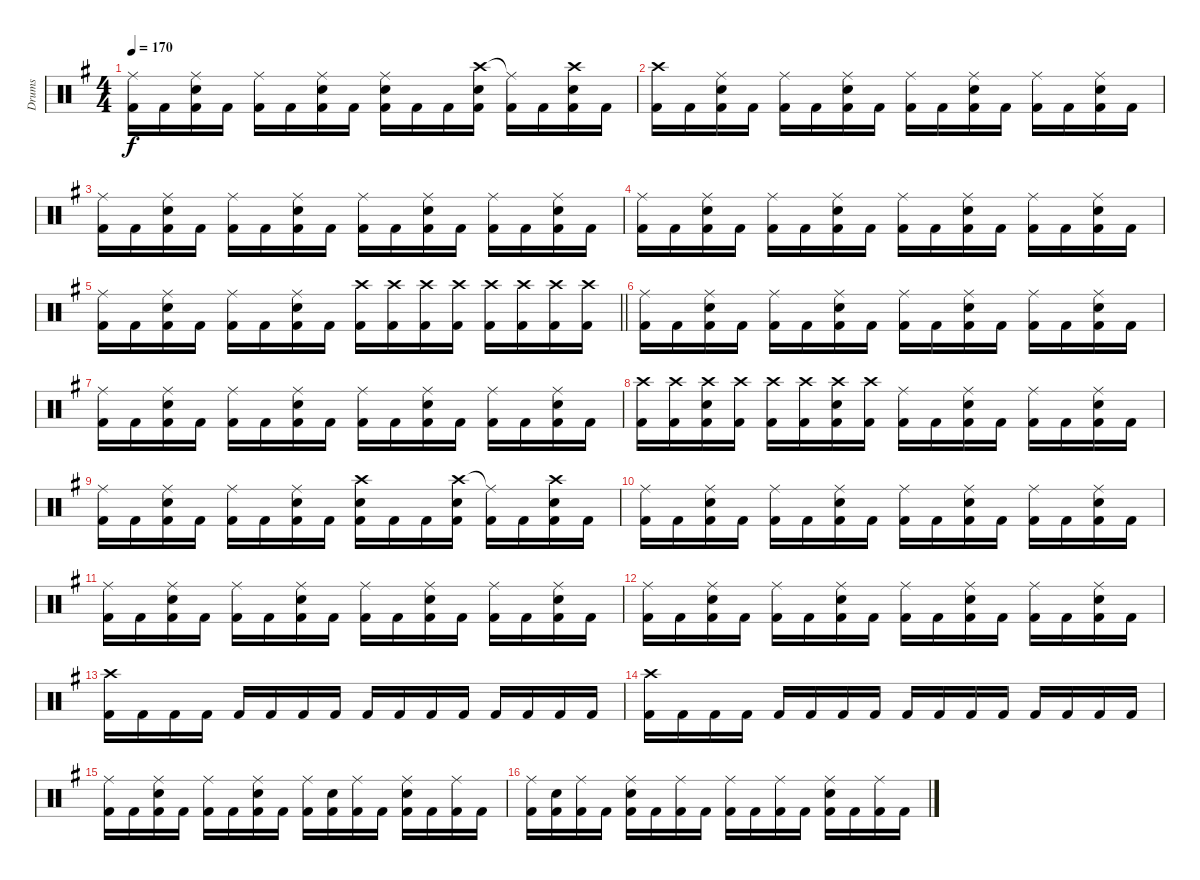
\track ("Drums" "Drums") {instrument percussion}
\staff {score}
\articulation defaults
\ts (4 4)
\tempo 170
\clef neutral
\ks g
("Ride (middle)" "Kick (hit) 2").16{dy f} "Kick (hit) 2".16 ("Ride (middle)" "Snare (hit) 2" "Kick (hit) 2").16 "Kick (hit) 2".16 ("Ride (middle)" "Kick (hit) 2").16 "Kick (hit) 2".16 ("Ride (middle)" "Snare (hit) 2" "Kick (hit) 2").16 "Kick (hit) 2".16 ("Ride (middle)" "Snare (hit) 2" "Kick (hit) 2").16 "Kick (hit) 2".16 "Kick (hit) 2".16 ("Crash high (hit)" "Snare (hit) 2" "Kick (hit) 2").16 ("Ride (middle)"{t} "Kick (hit) 2").16 "Kick (hit) 2".16 ("Crash high (hit)" "Snare (hit) 2" "Kick (hit) 2").16 "Kick (hit) 2".16 |
("Crash high (hit)" "Kick (hit) 2").16 "Kick (hit) 2".16 ("Ride (middle)" "Snare (hit) 2" "Kick (hit) 2").16 "Kick (hit) 2".16 ("Ride (middle)" "Kick (hit) 2").16 "Kick (hit) 2".16 ("Ride (middle)" "Snare (hit) 2" "Kick (hit) 2").16 "Kick (hit) 2".16 ("Ride (middle)" "Kick (hit) 2").16 "Kick (hit) 2".16 ("Ride (middle)" "Snare (hit) 2" "Kick (hit) 2").16 "Kick (hit) 2".16 ("Ride (middle)" "Kick (hit) 2").16 "Kick (hit) 2".16 ("Ride (middle)" "Snare (hit) 2" "Kick (hit) 2").16 "Kick (hit) 2".16 |
("Ride (middle)" "Kick (hit) 2").16 "Kick (hit) 2".16 ("Ride (middle)" "Snare (hit) 2" "Kick (hit) 2").16 "Kick (hit) 2".16 ("Ride (middle)" "Kick (hit) 2").16 "Kick (hit) 2".16 ("Ride (middle)" "Snare (hit) 2" "Kick (hit) 2").16 "Kick (hit) 2".16 ("Ride (middle)" "Kick (hit) 2").16 "Kick (hit) 2".16 ("Ride (middle)" "Snare (hit) 2" "Kick (hit) 2").16 "Kick (hit) 2".16 ("Ride (middle)" "Kick (hit) 2").16 "Kick (hit) 2".16 ("Ride (middle)" "Snare (hit) 2" "Kick (hit) 2").16 "Kick (hit) 2".16 |
("Ride (middle)" "Kick (hit) 2").16 "Kick (hit) 2".16 ("Ride (middle)" "Snare (hit) 2" "Kick (hit) 2").16 "Kick (hit) 2".16 ("Ride (middle)" "Kick (hit) 2").16 "Kick (hit) 2".16 ("Ride (middle)" "Snare (hit) 2" "Kick (hit) 2").16 "Kick (hit) 2".16 ("Ride (middle)" "Kick (hit) 2").16 "Kick (hit) 2".16 ("Ride (middle)" "Snare (hit) 2" "Kick (hit) 2").16 "Kick (hit) 2".16 ("Ride (middle)" "Kick (hit) 2").16 "Kick (hit) 2".16 ("Ride (middle)" "Snare (hit) 2" "Kick (hit) 2").16 "Kick (hit) 2".16 |
\barLineRight lightlight
("Ride (middle)" "Kick (hit) 2").16 "Kick (hit) 2".16 ("Ride (middle)" "Snare (hit) 2" "Kick (hit) 2").16 "Kick (hit) 2".16 ("Ride (middle)" "Kick (hit) 2").16 "Kick (hit) 2".16 ("Ride (middle)" "Snare (hit) 2" "Kick (hit) 2").16 "Kick (hit) 2".16 ("Crash high (hit)" "Kick (hit) 2").16 ("Crash high (hit)" "Kick (hit) 2").16 ("Crash high (hit)" "Kick (hit) 2").16 ("Crash high (hit)" "Kick (hit) 2").16 ("Crash high (hit)" "Kick (hit) 2").16 ("Crash high (hit)" "Kick (hit) 2").16 ("Crash high (hit)" "Kick (hit) 2").16 ("Crash high (hit)" "Kick (hit) 2").16 |
("Ride (middle)" "Kick (hit) 2").16 "Kick (hit) 2".16 ("Ride (middle)" "Snare (hit) 2" "Kick (hit) 2").16 "Kick (hit) 2".16 ("Ride (middle)" "Kick (hit) 2").16 "Kick (hit) 2".16 ("Ride (middle)" "Snare (hit) 2" "Kick (hit) 2").16 "Kick (hit) 2".16 ("Ride (middle)" "Kick (hit) 2").16 "Kick (hit) 2".16 ("Ride (middle)" "Snare (hit) 2" "Kick (hit) 2").16 "Kick (hit) 2".16 ("Ride (middle)" "Kick (hit) 2").16 "Kick (hit) 2".16 ("Ride (middle)" "Snare (hit) 2" "Kick (hit) 2").16 "Kick (hit) 2".16 |
("Ride (middle)" "Kick (hit) 2").16 "Kick (hit) 2".16 ("Ride (middle)" "Snare (hit) 2" "Kick (hit) 2").16 "Kick (hit) 2".16 ("Ride (middle)" "Kick (hit) 2").16 "Kick (hit) 2".16 ("Ride (middle)" "Snare (hit) 2" "Kick (hit) 2").16 "Kick (hit) 2".16 ("Ride (middle)" "Kick (hit) 2").16 "Kick (hit) 2".16 ("Ride (middle)" "Snare (hit) 2" "Kick (hit) 2").16 "Kick (hit) 2".16 ("Ride (middle)" "Kick (hit) 2").16 "Kick (hit) 2".16 ("Ride (middle)" "Snare (hit) 2" "Kick (hit) 2").16 "Kick (hit) 2".16 |
("Crash high (hit)" "Kick (hit) 2").16 ("Crash high (hit)" "Kick (hit) 2").16 ("Crash high (hit)" "Snare (hit) 2" "Kick (hit) 2").16 ("Crash high (hit)" "Kick (hit) 2").16 ("Crash high (hit)" "Kick (hit) 2").16 ("Crash high (hit)" "Kick (hit) 2").16 ("Crash high (hit)" "Snare (hit) 2" "Kick (hit) 2").16 ("Crash high (hit)" "Kick (hit) 2").16 ("Ride (middle)" "Kick (hit) 2").16 "Kick (hit) 2".16 ("Ride (middle)" "Snare (hit) 2" "Kick (hit) 2").16 "Kick (hit) 2".16 ("Ride (middle)" "Kick (hit) 2").16 "Kick (hit) 2".16 ("Ride (middle)" "Snare (hit) 2" "Kick (hit) 2").16 "Kick (hit) 2".16 |
("Ride (middle)" "Kick (hit) 2").16 "Kick (hit) 2".16 ("Ride (middle)" "Snare (hit) 2" "Kick (hit) 2").16 "Kick (hit) 2".16 ("Ride (middle)" "Kick (hit) 2").16 "Kick (hit) 2".16 ("Ride (middle)" "Snare (hit) 2" "Kick (hit) 2").16 "Kick (hit) 2".16 ("Crash high (hit)" "Snare (hit) 2" "Kick (hit) 2").16 "Kick (hit) 2".16 "Kick (hit) 2".16 ("Crash high (hit)" "Snare (hit) 2" "Kick (hit) 2").16 ("Ride (middle)"{t} "Kick (hit) 2").16 "Kick (hit) 2".16 ("Crash high (hit)" "Snare (hit) 2" "Kick (hit) 2").16 "Kick (hit) 2".16 |
("Ride (middle)" "Kick (hit) 2").16 "Kick (hit) 2".16 ("Ride (middle)" "Snare (hit) 2" "Kick (hit) 2").16 "Kick (hit) 2".16 ("Ride (middle)" "Kick (hit) 2").16 "Kick (hit) 2".16 ("Ride (middle)" "Snare (hit) 2" "Kick (hit) 2").16 "Kick (hit) 2".16 ("Ride (middle)" "Kick (hit) 2").16 "Kick (hit) 2".16 ("Ride (middle)" "Snare (hit) 2" "Kick (hit) 2").16 "Kick (hit) 2".16 ("Ride (middle)" "Kick (hit) 2").16 "Kick (hit) 2".16 ("Ride (middle)" "Snare (hit) 2" "Kick (hit) 2").16 "Kick (hit) 2".16 |
("Ride (middle)" "Kick (hit) 2").16 "Kick (hit) 2".16 ("Ride (middle)" "Snare (hit) 2" "Kick (hit) 2").16 "Kick (hit) 2".16 ("Ride (middle)" "Kick (hit) 2").16 "Kick (hit) 2".16 ("Ride (middle)" "Snare (hit) 2" "Kick (hit) 2").16 "Kick (hit) 2".16 ("Ride (middle)" "Kick (hit) 2").16 "Kick (hit) 2".16 ("Ride (middle)" "Snare (hit) 2" "Kick (hit) 2").16 "Kick (hit) 2".16 ("Ride (middle)" "Kick (hit) 2").16 "Kick (hit) 2".16 ("Ride (middle)" "Snare (hit) 2" "Kick (hit) 2").16 "Kick (hit) 2".16 |
("Ride (middle)" "Kick (hit) 2").16 "Kick (hit) 2".16 ("Ride (middle)" "Snare (hit) 2" "Kick (hit) 2").16 "Kick (hit) 2".16 ("Ride (middle)" "Kick (hit) 2").16 "Kick (hit) 2".16 ("Ride (middle)" "Snare (hit) 2" "Kick (hit) 2").16 "Kick (hit) 2".16 ("Ride (middle)" "Kick (hit) 2").16 "Kick (hit) 2".16 ("Ride (middle)" "Snare (hit) 2" "Kick (hit) 2").16 "Kick (hit) 2".16 ("Ride (middle)" "Kick (hit) 2").16 "Kick (hit) 2".16 ("Ride (middle)" "Snare (hit) 2" "Kick (hit) 2").16 "Kick (hit) 2".16 |
("Crash high (hit)" "Kick (hit) 2").16 "Kick (hit) 2".16 "Kick (hit) 2".16 "Kick (hit) 2".16 "Kick (hit) 2".16 "Kick (hit) 2".16 "Kick (hit) 2".16 "Kick (hit) 2".16 "Kick (hit) 2".16 "Kick (hit) 2".16 "Kick (hit) 2".16 "Kick (hit) 2".16 "Kick (hit) 2".16 "Kick (hit) 2".16 "Kick (hit) 2".16 "Kick (hit) 2".16 |
("Crash high (hit)" "Kick (hit) 2").16 "Kick (hit) 2".16 "Kick (hit) 2".16 "Kick (hit) 2".16 "Kick (hit) 2".16 "Kick (hit) 2".16 "Kick (hit) 2".16 "Kick (hit) 2".16 "Kick (hit) 2".16 "Kick (hit) 2".16 "Kick (hit) 2".16 "Kick (hit) 2".16 "Kick (hit) 2".16 "Kick (hit) 2".16 "Kick (hit) 2".16 "Kick (hit) 2".16 |
("Ride (middle)" "Kick (hit) 2").16 "Kick (hit) 2".16 ("Ride (middle)" "Snare (hit) 2" "Kick (hit) 2").16 "Kick (hit) 2".16 ("Ride (middle)" "Kick (hit) 2").16 "Kick (hit) 2".16 ("Ride (middle)" "Snare (hit) 2" "Kick (hit) 2").16 "Kick (hit) 2".16 ("Ride (middle)" "Kick (hit) 2").16 ("Snare (hit) 2" "Kick (hit) 2").16 ("Ride (middle)" "Kick (hit) 2").16 "Kick (hit) 2".16 ("Ride (middle)" "Snare (hit) 2" "Kick (hit) 2").16 "Kick (hit) 2".16 ("Ride (middle)" "Kick (hit) 2").16 "Kick (hit) 2".16 |
("Ride (middle)" "Kick (hit) 2").16 ("Snare (hit) 2" "Kick (hit) 2").16 ("Ride (middle)" "Kick (hit) 2").16 "Kick (hit) 2".16 ("Ride (middle)" "Snare (hit) 2" "Kick (hit) 2").16 "Kick (hit) 2".16 ("Ride (middle)" "Kick (hit) 2").16 "Kick (hit) 2".16 ("Ride (middle)" "Kick (hit) 2").16 "Kick (hit) 2".16 ("Ride (middle)" "Kick (hit) 2").16 "Kick (hit) 2".16 ("Ride (middle)" "Snare (hit) 2" "Kick (hit) 2").16 "Kick (hit) 2".16 ("Ride (middle)" "Kick (hit) 2").16 "Kick (hit) 2".16
